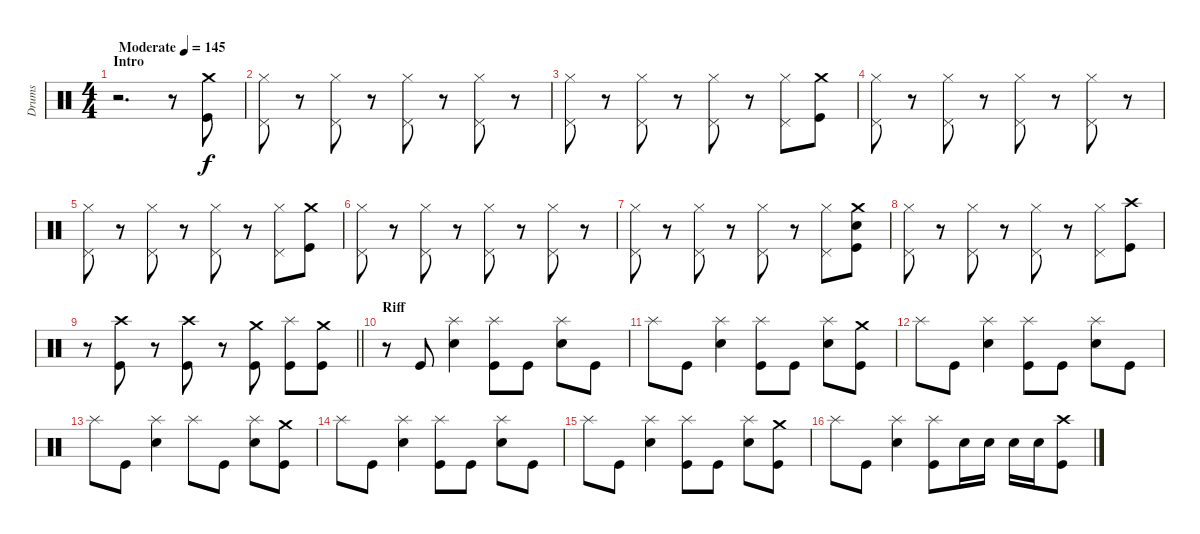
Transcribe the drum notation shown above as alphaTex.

\track ("Drums" "Drums") {instrument percussion}
\staff {score}
\articulation defaults
\ts (4 4)
\section ("" "Intro")
\tempo (145 "Moderate")
\clef neutral
\ks c
r.2{d dy f} r.8 ("Crash medium (hit)" "Kick (hit)").8 |
("Hi-Hat (closed)" "Pedal Hi-Hat (hit)").8 r.8 ("Hi-Hat (closed)" "Pedal Hi-Hat (hit)").8 r.8 ("Hi-Hat (closed)" "Pedal Hi-Hat (hit)").8 r.8 ("Hi-Hat (closed)" "Pedal Hi-Hat (hit)").8 r.8 |
("Hi-Hat (closed)" "Pedal Hi-Hat (hit)").8 r.8 ("Hi-Hat (closed)" "Pedal Hi-Hat (hit)").8 r.8 ("Hi-Hat (closed)" "Pedal Hi-Hat (hit)").8 r.8 ("Hi-Hat (closed)" "Pedal Hi-Hat (hit)").8 ("Crash medium (hit)" "Kick (hit)").8 |
("Hi-Hat (closed)" "Pedal Hi-Hat (hit)").8 r.8 ("Hi-Hat (closed)" "Pedal Hi-Hat (hit)").8 r.8 ("Hi-Hat (closed)" "Pedal Hi-Hat (hit)").8 r.8 ("Hi-Hat (closed)" "Pedal Hi-Hat (hit)").8 r.8 |
("Hi-Hat (closed)" "Pedal Hi-Hat (hit)").8 r.8 ("Hi-Hat (closed)" "Pedal Hi-Hat (hit)").8 r.8 ("Hi-Hat (closed)" "Pedal Hi-Hat (hit)").8 r.8 ("Hi-Hat (closed)" "Pedal Hi-Hat (hit)").8 ("Crash medium (hit)" "Kick (hit)").8 |
("Hi-Hat (closed)" "Pedal Hi-Hat (hit)").8 r.8 ("Hi-Hat (closed)" "Pedal Hi-Hat (hit)").8 r.8 ("Hi-Hat (closed)" "Pedal Hi-Hat (hit)").8 r.8 ("Hi-Hat (closed)" "Pedal Hi-Hat (hit)").8 r.8 |
("Hi-Hat (closed)" "Pedal Hi-Hat (hit)").8 r.8 ("Hi-Hat (closed)" "Pedal Hi-Hat (hit)").8 r.8 ("Hi-Hat (closed)" "Pedal Hi-Hat (hit)").8 r.8 ("Hi-Hat (closed)" "Pedal Hi-Hat (hit)").8 ("Crash medium (hit)" "Electric Snare (hit)" "Kick (hit)").8 |
("Hi-Hat (closed)" "Pedal Hi-Hat (hit)").8 r.8 ("Hi-Hat (closed)" "Pedal Hi-Hat (hit)").8 r.8 ("Hi-Hat (closed)" "Pedal Hi-Hat (hit)").8 r.8 ("Hi-Hat (closed)" "Pedal Hi-Hat (hit)").8 ("Crash high (hit)" "Kick (hit)").8 |
\barLineRight lightlight
r.8 ("Crash high (hit)" "Kick (hit)").8 r.8 ("Crash high (hit)" "Kick (hit)").8 r.8 ("Crash medium (hit)" "Kick (hit)").8 ("Splash (hit)" "Kick (hit)").8 ("Crash medium (hit)" "Kick (hit)").8 |
\section ("" "Riff")
r.8 "Kick (hit)".8 ("Splash (hit)" "Electric Snare (hit)").4 ("Splash (hit)" "Kick (hit)").8 "Kick (hit)".8 ("Splash (hit)" "Electric Snare (hit)").8 "Kick (hit)".8 |
"Splash (hit)".8 "Kick (hit)".8 ("Splash (hit)" "Electric Snare (hit)").4 ("Splash (hit)" "Kick (hit)").8 "Kick (hit)".8 ("Splash (hit)" "Electric Snare (hit)").8 ("Crash medium (hit)" "Kick (hit)").8 |
"Splash (hit)".8 "Kick (hit)".8 ("Splash (hit)" "Electric Snare (hit)").4 ("Splash (hit)" "Kick (hit)").8 "Kick (hit)".8 ("Splash (hit)" "Electric Snare (hit)").8 "Kick (hit)".8 |
"Splash (hit)".8 "Kick (hit)".8 ("Splash (hit)" "Electric Snare (hit)").4 "Splash (hit)".8 "Kick (hit)".8 ("Splash (hit)" "Electric Snare (hit)").8 ("Crash medium (hit)" "Kick (hit)").8 |
"Splash (hit)".8 "Kick (hit)".8 ("Splash (hit)" "Electric Snare (hit)").4 ("Splash (hit)" "Kick (hit)").8 "Kick (hit)".8 ("Splash (hit)" "Electric Snare (hit)").8 "Kick (hit)".8 |
"Splash (hit)".8 "Kick (hit)".8 ("Splash (hit)" "Electric Snare (hit)").4 ("Splash (hit)" "Kick (hit)").8 "Kick (hit)".8 ("Splash (hit)" "Electric Snare (hit)").8 ("Crash medium (hit)" "Kick (hit)").8 |
"Splash (hit)".8 "Kick (hit)".8 ("Splash (hit)" "Electric Snare (hit)").4 ("Splash (hit)" "Kick (hit)").8 "Electric Snare (hit)".16 "Electric Snare (hit)".16 "Electric Snare (hit)".16 "Electric Snare (hit)".16 ("Crash high (hit)" "Kick (hit)").8
